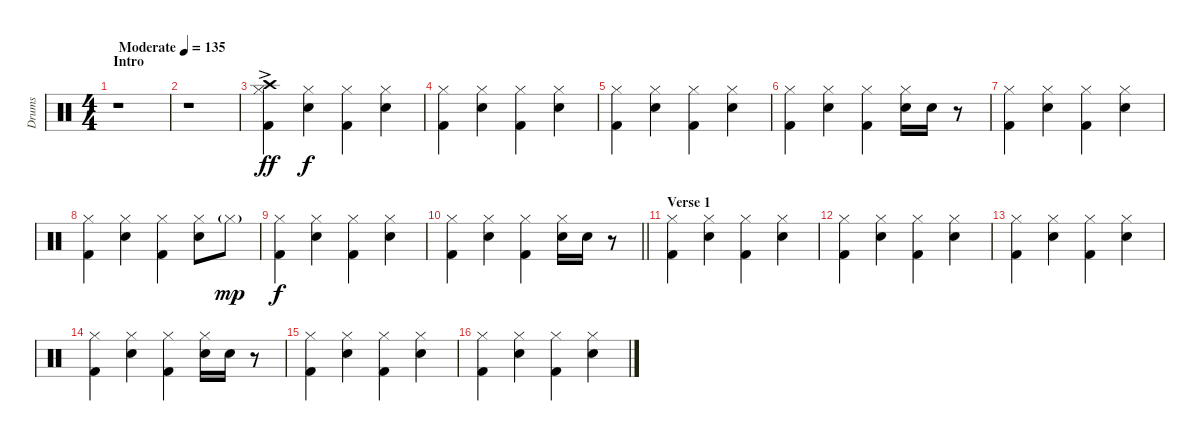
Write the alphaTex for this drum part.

\track ("Drums" "Drums") {instrument percussion}
\staff {score}
\articulation defaults
\ts (4 4)
\section ("" "Intro")
\tempo (135 "Moderate")
\clef neutral
\ks c
r.1{dy ff} |
r.1 |
("Hi-Hat (closed)" "Crash high (hit)"{ac} "Kick (hit) 2").4 ("Hi-Hat (closed)" "Electric Snare (hit)").4{dy f} ("Hi-Hat (closed)" "Kick (hit) 2").4 ("Hi-Hat (closed)" "Electric Snare (hit)").4 |
("Hi-Hat (closed)" "Kick (hit) 2").4 ("Hi-Hat (closed)" "Electric Snare (hit)").4 ("Hi-Hat (closed)" "Kick (hit) 2").4 ("Hi-Hat (closed)" "Electric Snare (hit)").4 |
("Hi-Hat (closed)" "Kick (hit) 2").4 ("Hi-Hat (closed)" "Electric Snare (hit)").4 ("Hi-Hat (closed)" "Kick (hit) 2").4 ("Hi-Hat (closed)" "Electric Snare (hit)").4 |
("Hi-Hat (closed)" "Kick (hit) 2").4 ("Hi-Hat (closed)" "Electric Snare (hit)").4 ("Hi-Hat (closed)" "Kick (hit) 2").4 ("Hi-Hat (closed)" "Electric Snare (hit)").16 "Electric Snare (hit)".16 r.8 |
("Hi-Hat (closed)" "Kick (hit) 2").4 ("Hi-Hat (closed)" "Electric Snare (hit)").4 ("Hi-Hat (closed)" "Kick (hit) 2").4 ("Hi-Hat (closed)" "Electric Snare (hit)").4 |
("Hi-Hat (closed)" "Kick (hit) 2").4 ("Hi-Hat (closed)" "Electric Snare (hit)").4 ("Hi-Hat (closed)" "Kick (hit) 2").4 ("Hi-Hat (closed)" "Electric Snare (hit)").8 "Hi-Hat (closed)"{g}.8{dy mp} |
("Hi-Hat (closed)" "Kick (hit) 2").4{dy f} ("Hi-Hat (closed)" "Electric Snare (hit)").4 ("Hi-Hat (closed)" "Kick (hit) 2").4 ("Hi-Hat (closed)" "Electric Snare (hit)").4 |
\barLineRight lightlight
("Hi-Hat (closed)" "Kick (hit) 2").4 ("Hi-Hat (closed)" "Electric Snare (hit)").4 ("Hi-Hat (closed)" "Kick (hit) 2").4 ("Hi-Hat (closed)" "Electric Snare (hit)").16 "Electric Snare (hit)".16 r.8 |
\section ("" "Verse 1")
("Hi-Hat (closed)" "Kick (hit) 2").4 ("Hi-Hat (closed)" "Electric Snare (hit)").4 ("Hi-Hat (closed)" "Kick (hit) 2").4 ("Hi-Hat (closed)" "Electric Snare (hit)").4 |
("Hi-Hat (closed)" "Kick (hit) 2").4 ("Hi-Hat (closed)" "Electric Snare (hit)").4 ("Hi-Hat (closed)" "Kick (hit) 2").4 ("Hi-Hat (closed)" "Electric Snare (hit)").4 |
("Hi-Hat (closed)" "Kick (hit) 2").4 ("Hi-Hat (closed)" "Electric Snare (hit)").4 ("Hi-Hat (closed)" "Kick (hit) 2").4 ("Hi-Hat (closed)" "Electric Snare (hit)").4 |
("Hi-Hat (closed)" "Kick (hit) 2").4 ("Hi-Hat (closed)" "Electric Snare (hit)").4 ("Hi-Hat (closed)" "Kick (hit) 2").4 ("Hi-Hat (closed)" "Electric Snare (hit)").16 "Electric Snare (hit)".16 r.8 |
("Hi-Hat (closed)" "Kick (hit) 2").4 ("Hi-Hat (closed)" "Electric Snare (hit)").4 ("Hi-Hat (closed)" "Kick (hit) 2").4 ("Hi-Hat (closed)" "Electric Snare (hit)").4 |
("Hi-Hat (closed)" "Kick (hit) 2").4 ("Hi-Hat (closed)" "Electric Snare (hit)").4 ("Hi-Hat (closed)" "Kick (hit) 2").4 ("Hi-Hat (closed)" "Electric Snare (hit)").4
